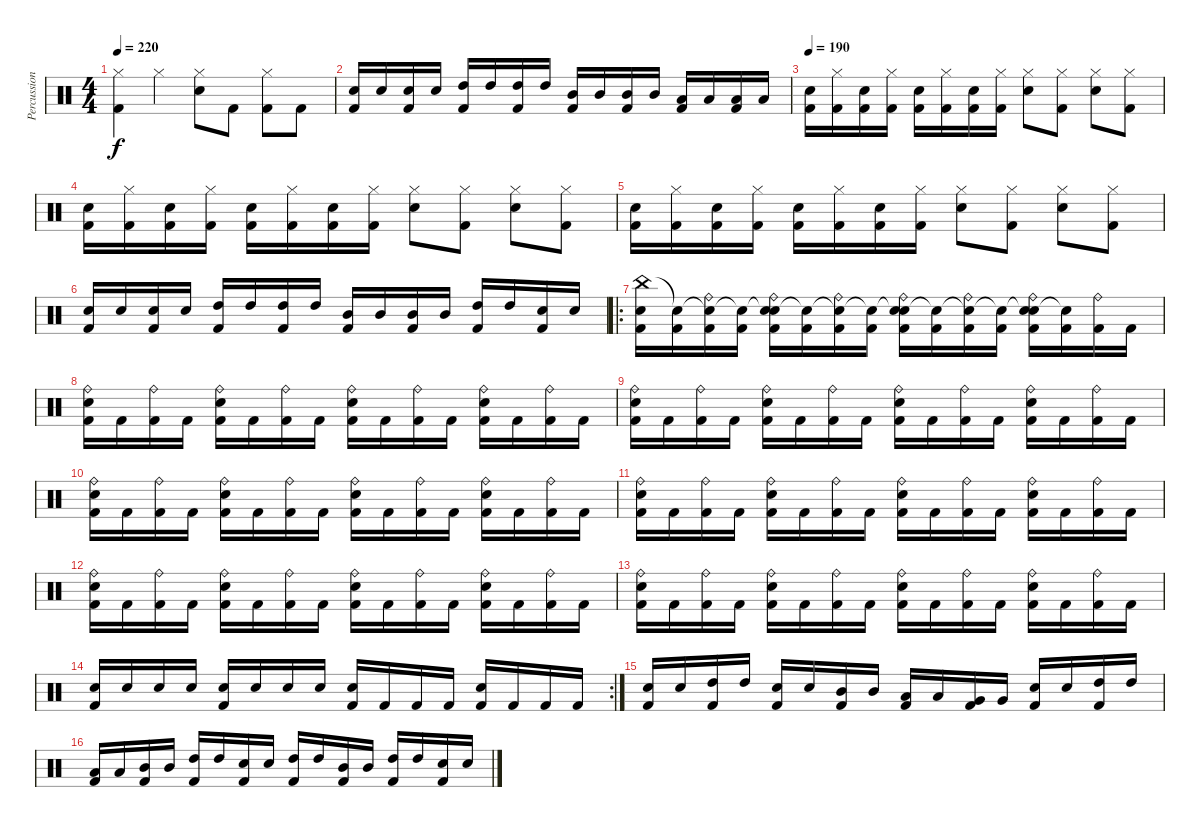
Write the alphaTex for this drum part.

\track ("Percussion" "Percussion") {instrument percussion}
\staff {score}
\articulation defaults
\ts (4 4)
\tempo 220
\clef neutral
\ks c
("Hi-Hat (closed)" "Kick (hit) 2").4{dy f} "Hi-Hat (closed)".4 ("Hi-Hat (closed)" "Snare (hit) 2").8 "Kick (hit) 2".8 ("Hi-Hat (closed)" "Kick (hit) 2").8 "Kick (hit) 2".8 |
("Snare (hit) 2" "Kick (hit) 2").16 "Snare (hit) 2".16 ("Snare (hit) 2" "Kick (hit) 2").16 "Snare (hit) 2".16 ("High Tom (hit)" "Kick (hit) 2").16 "High Tom (hit)".16 ("High Tom (hit)" "Kick (hit) 2").16 "High Tom (hit)".16 ("Mid Tom (hit)" "Kick (hit) 2").16 "Mid Tom (hit)".16 ("Mid Tom (hit)" "Kick (hit) 2").16 "Mid Tom (hit)".16 ("Low Tom (hit)" "Kick (hit) 2").16 "Low Tom (hit)".16 ("Low Tom (hit)" "Kick (hit) 2").16 "Low Tom (hit)".16 |
\tempo 190
("Snare (hit) 2" "Kick (hit) 2").16 ("Hi-Hat (closed)" "Kick (hit) 2").16 ("Snare (hit) 2" "Kick (hit) 2").16 ("Hi-Hat (closed)" "Kick (hit) 2").16 ("Snare (hit) 2" "Kick (hit) 2").16 ("Hi-Hat (closed)" "Kick (hit) 2").16 ("Snare (hit) 2" "Kick (hit) 2").16 ("Hi-Hat (closed)" "Kick (hit) 2").16 ("Hi-Hat (closed)" "Snare (hit) 2").8 ("Hi-Hat (closed)" "Kick (hit) 2").8 ("Hi-Hat (closed)" "Snare (hit) 2").8 ("Hi-Hat (closed)" "Kick (hit) 2").8 |
("Snare (hit) 2" "Kick (hit) 2").16 ("Hi-Hat (closed)" "Kick (hit) 2").16 ("Snare (hit) 2" "Kick (hit) 2").16 ("Hi-Hat (closed)" "Kick (hit) 2").16 ("Snare (hit) 2" "Kick (hit) 2").16 ("Hi-Hat (closed)" "Kick (hit) 2").16 ("Snare (hit) 2" "Kick (hit) 2").16 ("Hi-Hat (closed)" "Kick (hit) 2").16 ("Hi-Hat (closed)" "Snare (hit) 2").8 ("Hi-Hat (closed)" "Kick (hit) 2").8 ("Hi-Hat (closed)" "Snare (hit) 2").8 ("Hi-Hat (closed)" "Kick (hit) 2").8 |
("Snare (hit) 2" "Kick (hit) 2").16 ("Hi-Hat (closed)" "Kick (hit) 2").16 ("Snare (hit) 2" "Kick (hit) 2").16 ("Hi-Hat (closed)" "Kick (hit) 2").16 ("Snare (hit) 2" "Kick (hit) 2").16 ("Hi-Hat (closed)" "Kick (hit) 2").16 ("Snare (hit) 2" "Kick (hit) 2").16 ("Hi-Hat (closed)" "Kick (hit) 2").16 ("Hi-Hat (closed)" "Snare (hit) 2").8 ("Hi-Hat (closed)" "Kick (hit) 2").8 ("Hi-Hat (closed)" "Snare (hit) 2").8 ("Hi-Hat (closed)" "Kick (hit) 2").8 |
("Snare (hit) 2" "Kick (hit) 2").16 "Snare (hit) 2".16 ("Snare (hit) 2" "Kick (hit) 2").16 "Snare (hit) 2".16 ("High Tom (hit)" "Kick (hit) 2").16 "High Tom (hit)".16 ("High Tom (hit)" "Kick (hit) 2").16 "High Tom (hit)".16 ("Mid Tom (hit)" "Kick (hit) 2").16 "Mid Tom (hit)".16 ("Mid Tom (hit)" "Kick (hit) 2").16 "Mid Tom (hit)".16 ("High Tom (hit)" "Kick (hit) 2").16 "High Tom (hit)".16 ("Snare (hit) 2" "Kick (hit) 2").16 "Snare (hit) 2".16 |
\ro
("China (hit)" "Snare (hit) 2" "Kick (hit) 2").16 ("Snare (hit)"{t} "Kick (hit) 2").16 ("Snare (hit)"{t} "Ride (bell)" "Kick (hit) 2").16 ("Snare (hit)"{t} "Kick (hit) 2").16 ("Snare (hit)"{t} "Ride (bell)" "Snare (hit) 2" "Kick (hit) 2").16 ("Snare (hit)"{t} "Kick (hit) 2").16 ("Snare (hit)"{t} "Ride (bell)" "Kick (hit) 2").16 ("Snare (hit)"{t} "Kick (hit) 2").16 ("Snare (hit)"{t} "Ride (bell)" "Snare (hit) 2" "Kick (hit) 2").16 ("Snare (hit)"{t} "Kick (hit) 2").16 ("Snare (hit)"{t} "Ride (bell)" "Kick (hit) 2").16 ("Snare (hit)"{t} "Kick (hit) 2").16 ("Snare (hit)"{t} "Ride (bell)" "Snare (hit) 2" "Kick (hit) 2").16 ("Snare (hit)"{t} "Kick (hit) 2").16 ("Ride (bell)" "Kick (hit) 2").16 "Kick (hit) 2".16 |
("Ride (bell)" "Snare (hit) 2" "Kick (hit) 2").16 "Kick (hit) 2".16 ("Ride (bell)" "Kick (hit) 2").16 "Kick (hit) 2".16 ("Ride (bell)" "Snare (hit) 2" "Kick (hit) 2").16 "Kick (hit) 2".16 ("Ride (bell)" "Kick (hit) 2").16 "Kick (hit) 2".16 ("Ride (bell)" "Snare (hit) 2" "Kick (hit) 2").16 "Kick (hit) 2".16 ("Ride (bell)" "Kick (hit) 2").16 "Kick (hit) 2".16 ("Ride (bell)" "Snare (hit) 2" "Kick (hit) 2").16 "Kick (hit) 2".16 ("Ride (bell)" "Kick (hit) 2").16 "Kick (hit) 2".16 |
("Ride (bell)" "Snare (hit) 2" "Kick (hit) 2").16 "Kick (hit) 2".16 ("Ride (bell)" "Kick (hit) 2").16 "Kick (hit) 2".16 ("Ride (bell)" "Snare (hit) 2" "Kick (hit) 2").16 "Kick (hit) 2".16 ("Ride (bell)" "Kick (hit) 2").16 "Kick (hit) 2".16 ("Ride (bell)" "Snare (hit) 2" "Kick (hit) 2").16 "Kick (hit) 2".16 ("Ride (bell)" "Kick (hit) 2").16 "Kick (hit) 2".16 ("Ride (bell)" "Snare (hit) 2" "Kick (hit) 2").16 "Kick (hit) 2".16 ("Ride (bell)" "Kick (hit) 2").16 "Kick (hit) 2".16 |
("Ride (bell)" "Snare (hit) 2" "Kick (hit) 2").16 "Kick (hit) 2".16 ("Ride (bell)" "Kick (hit) 2").16 "Kick (hit) 2".16 ("Ride (bell)" "Snare (hit) 2" "Kick (hit) 2").16 "Kick (hit) 2".16 ("Ride (bell)" "Kick (hit) 2").16 "Kick (hit) 2".16 ("Ride (bell)" "Snare (hit) 2" "Kick (hit) 2").16 "Kick (hit) 2".16 ("Ride (bell)" "Kick (hit) 2").16 "Kick (hit) 2".16 ("Ride (bell)" "Snare (hit) 2" "Kick (hit) 2").16 "Kick (hit) 2".16 ("Ride (bell)" "Kick (hit) 2").16 "Kick (hit) 2".16 |
("Ride (bell)" "Snare (hit) 2" "Kick (hit) 2").16 "Kick (hit) 2".16 ("Ride (bell)" "Kick (hit) 2").16 "Kick (hit) 2".16 ("Ride (bell)" "Snare (hit) 2" "Kick (hit) 2").16 "Kick (hit) 2".16 ("Ride (bell)" "Kick (hit) 2").16 "Kick (hit) 2".16 ("Ride (bell)" "Snare (hit) 2" "Kick (hit) 2").16 "Kick (hit) 2".16 ("Ride (bell)" "Kick (hit) 2").16 "Kick (hit) 2".16 ("Ride (bell)" "Snare (hit) 2" "Kick (hit) 2").16 "Kick (hit) 2".16 ("Ride (bell)" "Kick (hit) 2").16 "Kick (hit) 2".16 |
("Ride (bell)" "Snare (hit) 2" "Kick (hit) 2").16 "Kick (hit) 2".16 ("Ride (bell)" "Kick (hit) 2").16 "Kick (hit) 2".16 ("Ride (bell)" "Snare (hit) 2" "Kick (hit) 2").16 "Kick (hit) 2".16 ("Ride (bell)" "Kick (hit) 2").16 "Kick (hit) 2".16 ("Ride (bell)" "Snare (hit) 2" "Kick (hit) 2").16 "Kick (hit) 2".16 ("Ride (bell)" "Kick (hit) 2").16 "Kick (hit) 2".16 ("Ride (bell)" "Snare (hit) 2" "Kick (hit) 2").16 "Kick (hit) 2".16 ("Ride (bell)" "Kick (hit) 2").16 "Kick (hit) 2".16 |
("Ride (bell)" "Snare (hit) 2" "Kick (hit) 2").16 "Kick (hit) 2".16 ("Ride (bell)" "Kick (hit) 2").16 "Kick (hit) 2".16 ("Ride (bell)" "Snare (hit) 2" "Kick (hit) 2").16 "Kick (hit) 2".16 ("Ride (bell)" "Kick (hit) 2").16 "Kick (hit) 2".16 ("Ride (bell)" "Snare (hit) 2" "Kick (hit) 2").16 "Kick (hit) 2".16 ("Ride (bell)" "Kick (hit) 2").16 "Kick (hit) 2".16 ("Ride (bell)" "Snare (hit) 2" "Kick (hit) 2").16 "Kick (hit) 2".16 ("Ride (bell)" "Kick (hit) 2").16 "Kick (hit) 2".16 |
\rc 2
("Snare (hit) 2" "Kick (hit) 2").16 "Snare (hit) 2".16 "Snare (hit) 2".16 "Snare (hit) 2".16 ("Snare (hit) 2" "Kick (hit) 2").16 "Snare (hit) 2".16 "Snare (hit) 2".16 "Snare (hit) 2".16 ("Snare (hit) 2" "Kick (hit) 2").16 "Kick (hit) 2".16 "Kick (hit) 2".16 "Kick (hit) 2".16 ("Snare (hit) 2" "Kick (hit) 2").16 "Kick (hit) 2".16 "Kick (hit) 2".16 "Kick (hit) 2".16 |
("Snare (hit) 2" "Kick (hit) 2").16 "Snare (hit) 2".16 ("High Tom (hit)" "Kick (hit) 2").16 "High Tom (hit)".16 ("Snare (hit) 2" "Kick (hit) 2").16 "Snare (hit) 2".16 ("Mid Tom (hit)" "Kick (hit) 2").16 "Mid Tom (hit)".16 ("Low Tom (hit)" "Kick (hit) 2").16 "Low Tom (hit)".16 ("Very Low Tom (hit)" "Kick (hit) 2").16 "Very Low Tom (hit)".16 ("Snare (hit) 2" "Kick (hit) 2").16 "Snare (hit) 2".16 ("High Tom (hit)" "Kick (hit) 2").16 "High Tom (hit)".16 |
("Low Tom (hit)" "Kick (hit) 2").16 "Low Tom (hit)".16 ("Mid Tom (hit)" "Kick (hit) 2").16 "Mid Tom (hit)".16 ("High Tom (hit)" "Kick (hit) 2").16 "High Tom (hit)".16 ("Snare (hit) 2" "Kick (hit) 2").16 "Snare (hit) 2".16 ("High Tom (hit)" "Kick (hit) 2").16 "High Tom (hit)".16 ("Mid Tom (hit)" "Kick (hit) 2").16 "Mid Tom (hit)".16 ("High Tom (hit)" "Kick (hit) 2").16 "High Tom (hit)".16 ("Snare (hit) 2" "Kick (hit) 2").16 "Snare (hit) 2".16
